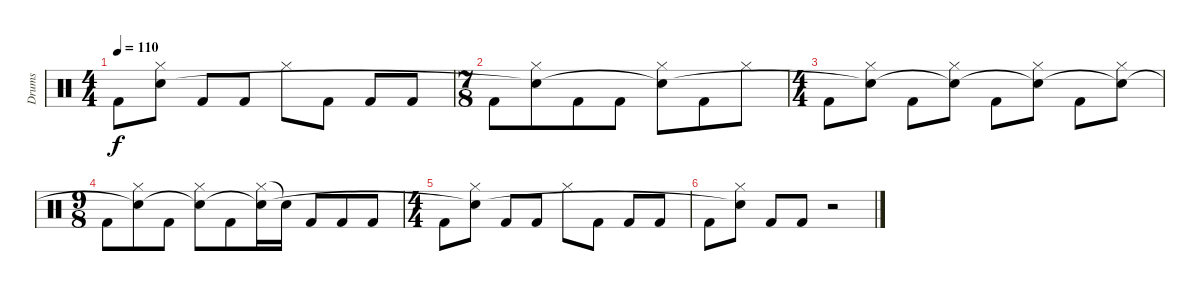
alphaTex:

\track ("Drums" "Drums") {instrument percussion}
\staff {score}
\articulation defaults
\ts (4 4)
\tempo 110
\clef neutral
\ks c "Kick (hit) 2".8{dy f}
("Hi-Hat (closed)" "Snare (hit)"{t}).8 "Kick (hit) 2".8 "Kick (hit) 2".8 "Hi-Hat (closed)".8 "Kick (hit) 2".8 "Kick (hit) 2".8 "Kick (hit) 2".8 |
\ts (7 8)
"Kick (hit) 2".8 ("Hi-Hat (closed)" "Snare (hit)"{t}).8 "Kick (hit) 2".8 "Kick (hit) 2".8 ("Hi-Hat (closed)" "Snare (hit)"{t}).8 "Kick (hit) 2".8 "Hi-Hat (closed)".8 |
\ts (4 4)
"Kick (hit) 2".8 ("Hi-Hat (closed)" "Snare (hit)"{t}).8 "Kick (hit) 2".8 ("Hi-Hat (closed)" "Snare (hit)"{t}).8 "Kick (hit) 2".8 ("Hi-Hat (closed)" "Snare (hit)"{t}).8 "Kick (hit) 2".8 ("Hi-Hat (closed)" "Snare (hit)"{t}).8 |
\ts (9 8)
"Kick (hit) 2".8 ("Hi-Hat (closed)" "Snare (hit)"{t}).8 "Kick (hit) 2".8 ("Hi-Hat (closed)" "Snare (hit)"{t}).8 "Kick (hit) 2".8 ("Hi-Hat (closed)" "Snare (hit)"{t}).16 "Snare (hit)"{t}.16 "Kick (hit) 2".8 "Kick (hit) 2".8 "Kick (hit) 2".8 |
\ts (4 4)
"Kick (hit) 2".8 ("Hi-Hat (closed)" "Snare (hit)"{t}).8 "Kick (hit) 2".8 "Kick (hit) 2".8 "Hi-Hat (closed)".8 "Kick (hit) 2".8 "Kick (hit) 2".8 "Kick (hit) 2".8 |
"Kick (hit) 2".8 ("Hi-Hat (closed)" "Snare (hit)"{t}).8 "Kick (hit) 2".8 "Kick (hit) 2".8 r.2
